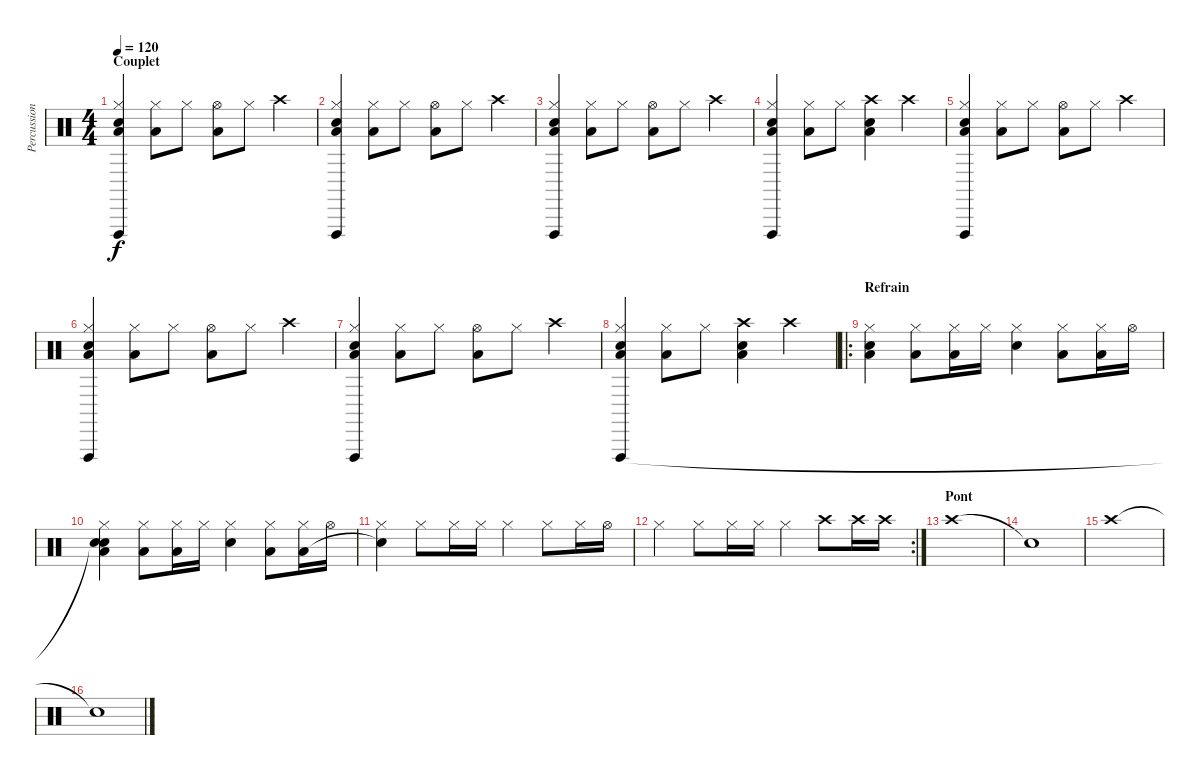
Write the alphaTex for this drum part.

\track ("Percussions" "Percussion") {instrument percussion}
\staff {score}
\articulation defaults
\ts (4 4)
\section ("" "Couplet")
\tempo 120
\clef neutral
\ks c
("Hi-Hat (closed)" "Low Tom (hit)" "Snare (hit) 2" "Vibraslap (hit)").4{dy f} ("Hi-Hat (closed)" "Low Tom (hit)").8 "Hi-Hat (closed)".8 ("Hi-Hat (open)" "Low Tom (hit)").8 "Hi-Hat (closed)".8 "Crash high (hit)".4 |
("Hi-Hat (closed)" "Low Tom (hit)" "Snare (hit) 2" "Vibraslap (hit)").4 ("Hi-Hat (closed)" "Low Tom (hit)").8 "Hi-Hat (closed)".8 ("Hi-Hat (open)" "Low Tom (hit)").8 "Hi-Hat (closed)".8 "Crash high (hit)".4 |
("Hi-Hat (closed)" "Low Tom (hit)" "Snare (hit) 2" "Vibraslap (hit)").4 ("Hi-Hat (closed)" "Low Tom (hit)").8 "Hi-Hat (closed)".8 ("Hi-Hat (open)" "Low Tom (hit)").8 "Hi-Hat (closed)".8 "Crash high (hit)".4 |
("Hi-Hat (closed)" "Low Tom (hit)" "Snare (hit) 2" "Vibraslap (hit)").4 ("Hi-Hat (closed)" "Low Tom (hit)").8 "Hi-Hat (closed)".8 ("Crash high (hit)" "Low Tom (hit)" "Snare (hit) 2").4 "Crash high (hit)".4 |
("Hi-Hat (closed)" "Low Tom (hit)" "Snare (hit) 2" "Vibraslap (hit)").4 ("Hi-Hat (closed)" "Low Tom (hit)").8 "Hi-Hat (closed)".8 ("Hi-Hat (open)" "Low Tom (hit)").8 "Hi-Hat (closed)".8 "Crash high (hit)".4 |
("Hi-Hat (closed)" "Low Tom (hit)" "Snare (hit) 2" "Vibraslap (hit)").4 ("Hi-Hat (closed)" "Low Tom (hit)").8 "Hi-Hat (closed)".8 ("Hi-Hat (open)" "Low Tom (hit)").8 "Hi-Hat (closed)".8 "Crash high (hit)".4 |
("Hi-Hat (closed)" "Low Tom (hit)" "Snare (hit) 2" "Vibraslap (hit)").4 ("Hi-Hat (closed)" "Low Tom (hit)").8 "Hi-Hat (closed)".8 ("Hi-Hat (open)" "Low Tom (hit)").8 "Hi-Hat (closed)".8 "Crash high (hit)".4 |
("Hi-Hat (closed)" "Low Tom (hit)" "Snare (hit) 2" "Vibraslap (hit)").4 ("Hi-Hat (closed)" "Low Tom (hit)").8 "Hi-Hat (closed)".8 ("Crash high (hit)" "Low Tom (hit)" "Snare (hit) 2").4 "Crash high (hit)".4 |
\ro
\section ("" "Refrain")
("Hi-Hat (closed)" "Snare (hit) 2" "Low Tom (hit)").4 ("Hi-Hat (closed)" "Low Tom (hit)").8 ("Hi-Hat (closed)" "Low Tom (hit)").16 "Hi-Hat (closed)".16 ("Hi-Hat (closed)" "Snare (hit) 2").4 ("Hi-Hat (closed)" "Low Tom (hit)").8 ("Hi-Hat (closed)" "Low Tom (hit)").16 "Hi-Hat (open)".16 |
("Hi-Hat (closed)" "Snare (hit) 2" "Low Tom (hit)" "Snare (hit)"{t}).4 ("Hi-Hat (closed)" "Low Tom (hit)").8 ("Hi-Hat (closed)" "Low Tom (hit)").16 "Hi-Hat (closed)".16 ("Hi-Hat (closed)" "Snare (hit) 2").4 ("Hi-Hat (closed)" "Low Tom (hit)").8 ("Hi-Hat (closed)" "Low Tom (hit)").16 "Hi-Hat (open)".16 |
("Hi-Hat (closed)" "Snare (hit)"{t}).4 "Hi-Hat (closed)".8 "Hi-Hat (closed)".16 "Hi-Hat (closed)".16 "Hi-Hat (closed)".4 "Hi-Hat (closed)".8 "Hi-Hat (closed)".16 "Hi-Hat (open)".16 |
\rc 2 "Hi-Hat (closed)".4 "Hi-Hat (closed)".8 "Hi-Hat (closed)".16 "Hi-Hat (closed)".16 "Hi-Hat (closed)".4 "Crash high (hit)".8 "Crash high (hit)".16 "Crash high (hit)".16
|
\section ("" "Pont")
"Crash high (hit)".1 |
"Snare (hit)"{t}.1 |
"Crash high (hit)".1 |
"Snare (hit)"{t}.1
